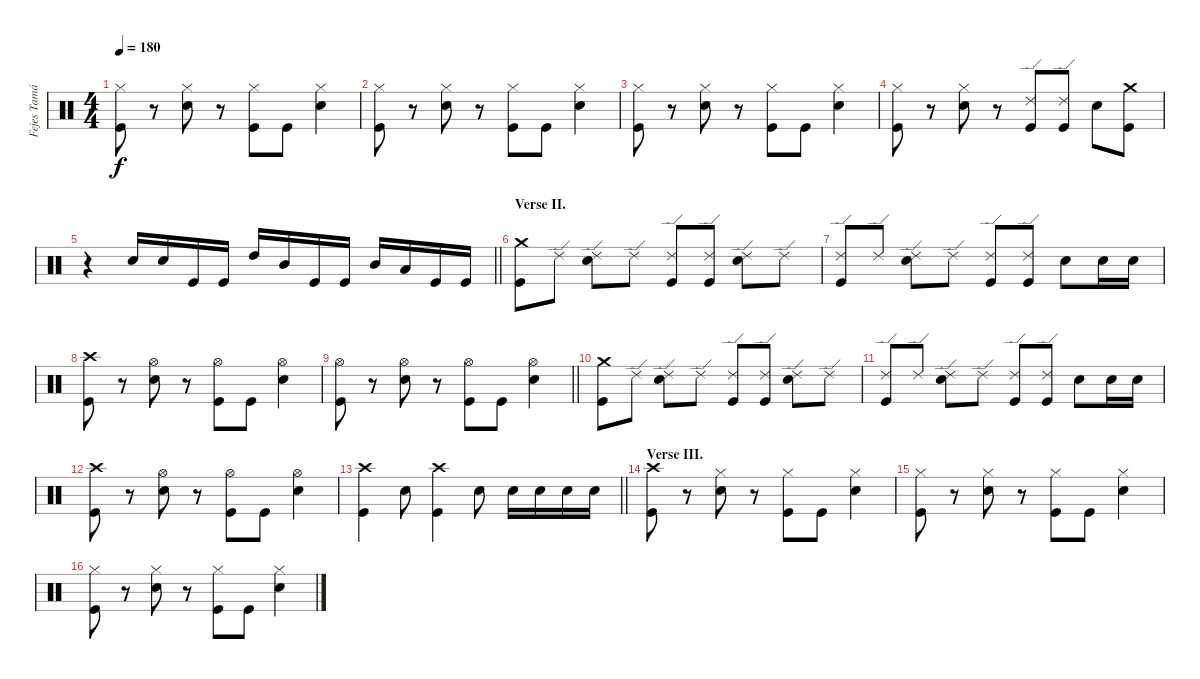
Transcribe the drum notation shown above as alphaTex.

\track ("Fejes Tamás - Dob" "Fejes Tamá") {instrument percussion}
\staff {score}
\articulation defaults
\ts (4 4)
\tempo 180
\clef neutral
\ks c
("Hi-Hat (closed)" "Kick (hit)").8{dy f} r.8 ("Hi-Hat (closed)" "Electric Snare (hit)").8 r.8 ("Hi-Hat (closed)" "Kick (hit)").8 "Kick (hit)".8 ("Hi-Hat (closed)" "Electric Snare (hit)").4 |
("Hi-Hat (closed)" "Kick (hit)").8 r.8 ("Hi-Hat (closed)" "Electric Snare (hit)").8 r.8 ("Hi-Hat (closed)" "Kick (hit)").8 "Kick (hit)".8 ("Hi-Hat (closed)" "Electric Snare (hit)").4 |
("Hi-Hat (closed)" "Kick (hit)").8 r.8 ("Hi-Hat (closed)" "Electric Snare (hit)").8 r.8 ("Hi-Hat (closed)" "Kick (hit)").8 "Kick (hit)".8 ("Hi-Hat (closed)" "Electric Snare (hit)").4 |
("Hi-Hat (closed)" "Kick (hit)").8 r.8 ("Hi-Hat (closed)" "Electric Snare (hit)").8 r.8 ("Ride (edge) 2" "Kick (hit)").8 ("Ride (edge) 2" "Kick (hit)").8 "Electric Snare (hit)".8 ("Crash medium (hit)" "Kick (hit)").8 |
\barLineRight lightlight
r.4 "Electric Snare (hit)".16 "Electric Snare (hit)".16 "Kick (hit)".16 "Kick (hit)".16 "High Tom (hit)".16 "Mid Tom (hit)".16 "Kick (hit)".16 "Kick (hit)".16 "Mid Tom (hit)".16 "Low Tom (hit)".16 "Kick (hit)".16 "Kick (hit)".16 |
\section ("" "Verse II.")
("Crash medium (hit)" "Kick (hit)").8 "Ride (edge) 2".8 ("Ride (edge) 2" "Electric Snare (hit)").8 "Ride (edge) 2".8 ("Ride (edge) 2" "Kick (hit)").8 ("Ride (edge) 2" "Kick (hit)").8 ("Ride (edge) 2" "Electric Snare (hit)").8 "Ride (edge) 2".8 |
("Ride (edge) 2" "Kick (hit)").8 "Ride (edge) 2".8 ("Ride (edge) 2" "Electric Snare (hit)").8 "Ride (edge) 2".8 ("Ride (edge) 2" "Kick (hit)").8 ("Ride (edge) 2" "Kick (hit)").8 "Electric Snare (hit)".8 "Electric Snare (hit)".16 "Electric Snare (hit)".16 |
("Crash high (hit)" "Kick (hit)").8 r.8 ("Hi-Hat (open)" "Electric Snare (hit)").8 r.8 ("Hi-Hat (open)" "Kick (hit)").8 "Kick (hit)".8 ("Hi-Hat (open)" "Electric Snare (hit)").4 |
\barLineRight lightlight
("Hi-Hat (open)" "Kick (hit)").8 r.8 ("Hi-Hat (open)" "Electric Snare (hit)").8 r.8 ("Hi-Hat (open)" "Kick (hit)").8 "Kick (hit)".8 ("Hi-Hat (open)" "Electric Snare (hit)").4 |
("Crash medium (hit)" "Kick (hit)").8 "Ride (edge) 2".8 ("Ride (edge) 2" "Electric Snare (hit)").8 "Ride (edge) 2".8 ("Ride (edge) 2" "Kick (hit)").8 ("Ride (edge) 2" "Kick (hit)").8 ("Ride (edge) 2" "Electric Snare (hit)").8 "Ride (edge) 2".8 |
("Ride (edge) 2" "Kick (hit)").8 "Ride (edge) 2".8 ("Ride (edge) 2" "Electric Snare (hit)").8 "Ride (edge) 2".8 ("Ride (edge) 2" "Kick (hit)").8 ("Ride (edge) 2" "Kick (hit)").8 "Electric Snare (hit)".8 "Electric Snare (hit)".16 "Electric Snare (hit)".16 |
("Crash high (hit)" "Kick (hit)").8 r.8 ("Hi-Hat (open)" "Electric Snare (hit)").8 r.8 ("Hi-Hat (open)" "Kick (hit)").8 "Kick (hit)".8 ("Hi-Hat (open)" "Electric Snare (hit)").4 |
\barLineRight lightlight
("Crash high (hit)" "Kick (hit)").4 "Electric Snare (hit)".8 ("Crash high (hit)" "Kick (hit)").4 "Electric Snare (hit)".8 "Electric Snare (hit)".16 "Electric Snare (hit)".16 "Electric Snare (hit)".16 "Electric Snare (hit)".16 |
\section ("" "Verse III.")
("Crash high (hit)" "Kick (hit)").8 r.8 ("Hi-Hat (closed)" "Electric Snare (hit)").8 r.8 ("Hi-Hat (closed)" "Kick (hit)").8 "Kick (hit)".8 ("Hi-Hat (closed)" "Electric Snare (hit)").4 |
("Hi-Hat (closed)" "Kick (hit)").8 r.8 ("Hi-Hat (closed)" "Electric Snare (hit)").8 r.8 ("Hi-Hat (closed)" "Kick (hit)").8 "Kick (hit)".8 ("Hi-Hat (closed)" "Electric Snare (hit)").4 |
("Hi-Hat (closed)" "Kick (hit)").8 r.8 ("Hi-Hat (closed)" "Electric Snare (hit)").8 r.8 ("Hi-Hat (closed)" "Kick (hit)").8 "Kick (hit)".8 ("Hi-Hat (closed)" "Electric Snare (hit)").4
